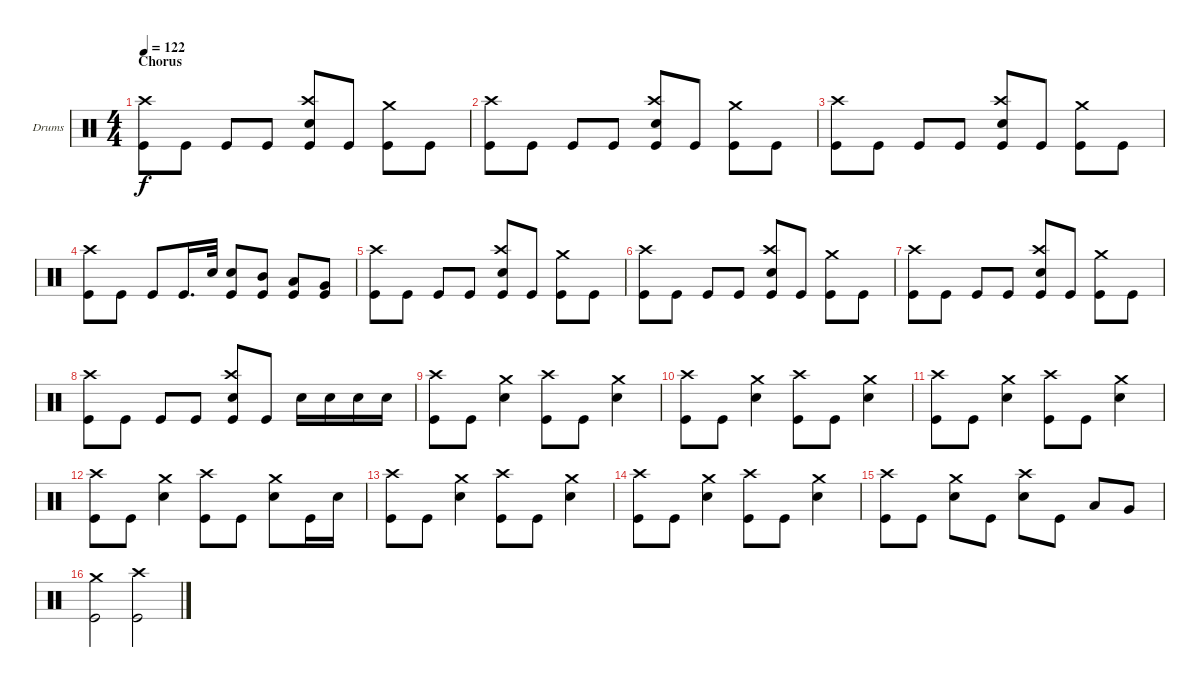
\bracketExtendMode groupsimilarinstruments
\firstSystemTrackNameOrientation horizontal
\otherSystemsTrackNameOrientation horizontal
\track ("Brent Fitz" "Drums") {instrument percussion}
\staff {score}
\articulation defaults
\ts (4 4)
\section ("" "Chorus")
\tempo 122
\clef neutral
\ks c
("Kick (hit)" "Crash high (hit)").8{dy f} "Kick (hit)".8 "Kick (hit)".8 "Kick (hit)".8 ("Snare (hit) 2" "Crash high (hit)" "Kick (hit)").8 "Kick (hit)".8 ("Kick (hit)" "Crash medium (hit)").8 "Kick (hit)".8 |
("Kick (hit)" "Crash high (hit)").8 "Kick (hit)".8 "Kick (hit)".8 "Kick (hit)".8 ("Snare (hit) 2" "Crash high (hit)" "Kick (hit)").8 "Kick (hit)".8 ("Kick (hit)" "Crash medium (hit)").8 "Kick (hit)".8 |
("Kick (hit)" "Crash high (hit)").8 "Kick (hit)".8 "Kick (hit)".8 "Kick (hit)".8 ("Snare (hit) 2" "Crash high (hit)" "Kick (hit)").8 "Kick (hit)".8 ("Kick (hit)" "Crash medium (hit)").8 "Kick (hit)".8 |
("Kick (hit)" "Crash high (hit)").8 "Kick (hit)".8 "Kick (hit)".8 "Kick (hit)".16{d} "Snare (hit) 2".32 ("Snare (hit) 2" "Kick (hit)").8 ("Mid Tom (hit)" "Kick (hit)").8 ("Low Tom (hit)" "Kick (hit)").8 ("Very Low Tom (hit)" "Kick (hit)").8 |
("Kick (hit)" "Crash high (hit)").8 "Kick (hit)".8 "Kick (hit)".8 "Kick (hit)".8 ("Snare (hit) 2" "Crash high (hit)" "Kick (hit)").8 "Kick (hit)".8 ("Kick (hit)" "Crash medium (hit)").8 "Kick (hit)".8 |
("Kick (hit)" "Crash high (hit)").8 "Kick (hit)".8 "Kick (hit)".8 "Kick (hit)".8 ("Snare (hit) 2" "Crash high (hit)" "Kick (hit)").8 "Kick (hit)".8 ("Kick (hit)" "Crash medium (hit)").8 "Kick (hit)".8 |
("Kick (hit)" "Crash high (hit)").8 "Kick (hit)".8 "Kick (hit)".8 "Kick (hit)".8 ("Snare (hit) 2" "Crash high (hit)" "Kick (hit)").8 "Kick (hit)".8 ("Kick (hit)" "Crash medium (hit)").8 "Kick (hit)".8 |
("Kick (hit)" "Crash high (hit)").8 "Kick (hit)".8 "Kick (hit)".8 "Kick (hit)".8 ("Snare (hit) 2" "Crash high (hit)" "Kick (hit)").8 "Kick (hit)".8 "Snare (hit) 2".16 "Snare (hit) 2".16 "Snare (hit) 2".16 "Snare (hit) 2".16 |
("Kick (hit)" "Crash high (hit)").8 "Kick (hit)".8 ("Snare (hit) 2" "Crash medium (hit)").4 ("Kick (hit)" "Crash high (hit)").8 "Kick (hit)".8 ("Snare (hit) 2" "Crash medium (hit)").4 |
("Kick (hit)" "Crash high (hit)").8 "Kick (hit)".8 ("Snare (hit) 2" "Crash medium (hit)").4 ("Kick (hit)" "Crash high (hit)").8 "Kick (hit)".8 ("Snare (hit) 2" "Crash medium (hit)").4 |
("Kick (hit)" "Crash high (hit)").8 "Kick (hit)".8 ("Snare (hit) 2" "Crash medium (hit)").4 ("Kick (hit)" "Crash high (hit)").8 "Kick (hit)".8 ("Snare (hit) 2" "Crash medium (hit)").4 |
("Kick (hit)" "Crash high (hit)").8 "Kick (hit)".8 ("Snare (hit) 2" "Crash medium (hit)").4 ("Kick (hit)" "Crash high (hit)").8 "Kick (hit)".8 ("Snare (hit) 2" "Crash medium (hit)").8 "Kick (hit)".16 "Snare (hit) 2".16 |
("Kick (hit)" "Crash high (hit)").8 "Kick (hit)".8 ("Snare (hit) 2" "Crash medium (hit)").4 ("Kick (hit)" "Crash high (hit)").8 "Kick (hit)".8 ("Snare (hit) 2" "Crash medium (hit)").4 |
("Kick (hit)" "Crash high (hit)").8 "Kick (hit)".8 ("Snare (hit) 2" "Crash medium (hit)").4 ("Kick (hit)" "Crash high (hit)").8 "Kick (hit)".8 ("Snare (hit) 2" "Crash medium (hit)").4 |
("Kick (hit)" "Crash high (hit)").8 "Kick (hit)".8 ("Snare (hit) 2" "Crash medium (hit)").8 "Kick (hit)".8 ("Snare (hit) 2" "Crash high (hit)").8 "Kick (hit)".8 "Low Tom (hit)".8 "Very Low Tom (hit)".8 |
("Kick (hit)" "Crash medium (hit)").2 ("Kick (hit)" "Crash high (hit)").2
